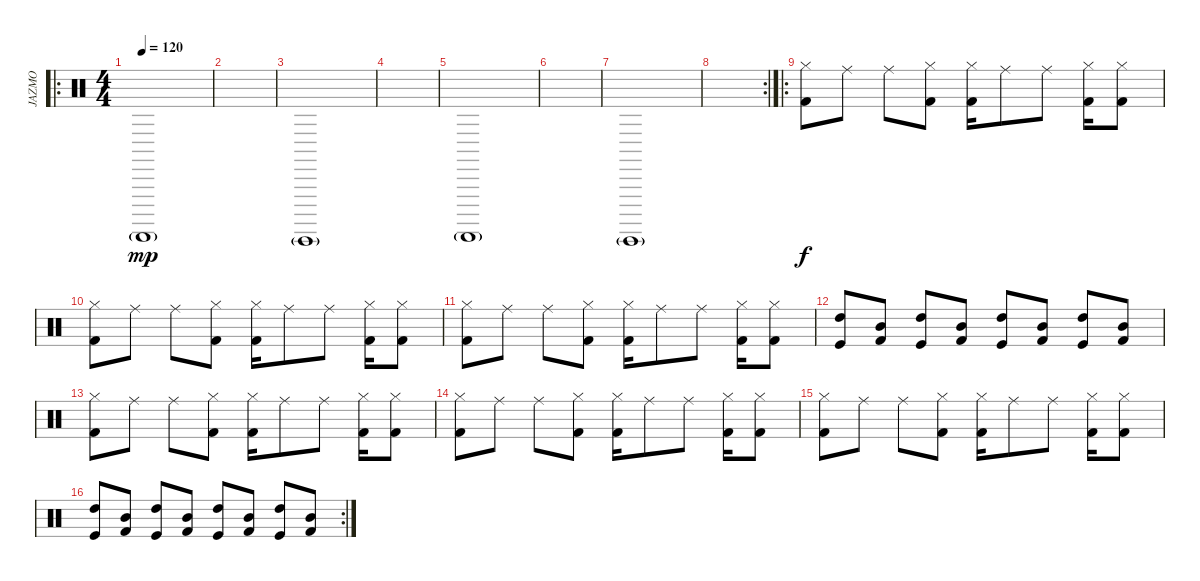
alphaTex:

\track ("JAZMO" "JAZMO") {instrument percussion}
\staff {score}
\articulation defaults
\ro
\ts (4 4)
\tempo 120
\clef neutral
\ks c "Guiro (scrap-return)"{g}.1{dy mp}
|
|
"Guiro (hit)"{g}.1 |
|
"Guiro (scrap-return)"{g}.1 |
|
"Guiro (hit)"{g}.1 |
\rc 2
|
\ro
("Hi-Hat (closed)" "Kick (hit) 2").8{dy f} "Ride (middle)".8 "Ride (middle)".8 ("Hi-Hat (closed)" "Kick (hit) 2").8 ("Hi-Hat (closed)" "Kick (hit) 2").16 "Ride (middle)".8 "Ride (middle)".8 ("Hi-Hat (closed)" "Kick (hit) 2").16 ("Hi-Hat (closed)" "Kick (hit) 2").8 |
("Hi-Hat (closed)" "Kick (hit) 2").8 "Ride (middle)".8 "Ride (middle)".8 ("Hi-Hat (closed)" "Kick (hit) 2").8 ("Hi-Hat (closed)" "Kick (hit) 2").16 "Ride (middle)".8 "Ride (middle)".8 ("Hi-Hat (closed)" "Kick (hit) 2").16 ("Hi-Hat (closed)" "Kick (hit) 2").8 |
("Hi-Hat (closed)" "Kick (hit) 2").8 "Ride (middle)".8 "Ride (middle)".8 ("Hi-Hat (closed)" "Kick (hit) 2").8 ("Hi-Hat (closed)" "Kick (hit) 2").16 "Ride (middle)".8 "Ride (middle)".8 ("Hi-Hat (closed)" "Kick (hit) 2").16 ("Hi-Hat (closed)" "Kick (hit) 2").8 |
("High Tom (hit)" "Kick (hit)").8 ("Mid Tom (hit)" "Kick (hit) 2").8 ("High Tom (hit)" "Kick (hit)").8 ("Mid Tom (hit)" "Kick (hit) 2").8 ("High Tom (hit)" "Kick (hit)").8 ("Mid Tom (hit)" "Kick (hit) 2").8 ("High Tom (hit)" "Kick (hit)").8 ("Mid Tom (hit)" "Kick (hit) 2").8 |
("Hi-Hat (closed)" "Kick (hit) 2").8 "Ride (middle)".8 "Ride (middle)".8 ("Hi-Hat (closed)" "Kick (hit) 2").8 ("Hi-Hat (closed)" "Kick (hit) 2").16 "Ride (middle)".8 "Ride (middle)".8 ("Hi-Hat (closed)" "Kick (hit) 2").16 ("Hi-Hat (closed)" "Kick (hit) 2").8 |
("Hi-Hat (closed)" "Kick (hit) 2").8 "Ride (middle)".8 "Ride (middle)".8 ("Hi-Hat (closed)" "Kick (hit) 2").8 ("Hi-Hat (closed)" "Kick (hit) 2").16 "Ride (middle)".8 "Ride (middle)".8 ("Hi-Hat (closed)" "Kick (hit) 2").16 ("Hi-Hat (closed)" "Kick (hit) 2").8 |
("Hi-Hat (closed)" "Kick (hit) 2").8 "Ride (middle)".8 "Ride (middle)".8 ("Hi-Hat (closed)" "Kick (hit) 2").8 ("Hi-Hat (closed)" "Kick (hit) 2").16 "Ride (middle)".8 "Ride (middle)".8 ("Hi-Hat (closed)" "Kick (hit) 2").16 ("Hi-Hat (closed)" "Kick (hit) 2").8 |
\rc 2
("High Tom (hit)" "Kick (hit)").8 ("Mid Tom (hit)" "Kick (hit) 2").8 ("High Tom (hit)" "Kick (hit)").8 ("Mid Tom (hit)" "Kick (hit) 2").8 ("High Tom (hit)" "Kick (hit)").8 ("Mid Tom (hit)" "Kick (hit) 2").8 ("High Tom (hit)" "Kick (hit)").8 ("Mid Tom (hit)" "Kick (hit) 2").8
